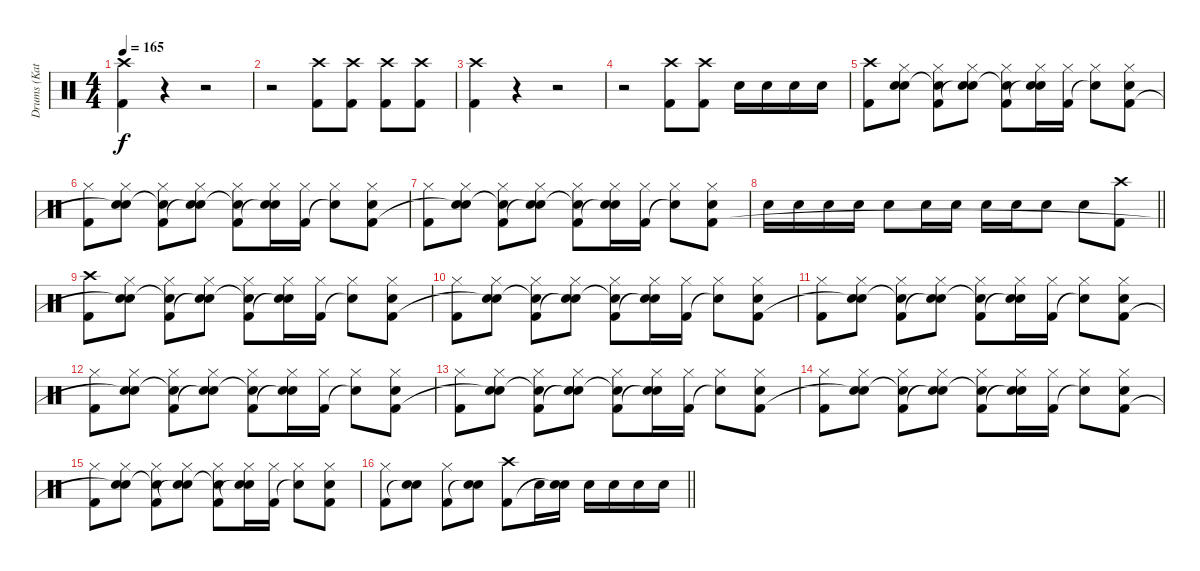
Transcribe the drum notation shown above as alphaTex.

\track ("Drums (Katsuji)" "Drums (Kat") {instrument percussion}
\staff {score}
\articulation defaults
\ts (4 4)
\tempo 165
\clef neutral
\ks c
("Crash high (hit)" "Kick (hit) 2").4{dy f} r.4 r.2 |
r.2 ("Crash high (hit)" "Kick (hit) 2").8 ("Crash high (hit)" "Kick (hit) 2").8 ("Crash high (hit)" "Kick (hit) 2").8 ("Crash high (hit)" "Kick (hit) 2").8 |
("Crash high (hit)" "Kick (hit) 2").4 r.4 r.2 |
r.2 ("Crash high (hit)" "Kick (hit) 2").8 ("Crash high (hit)" "Kick (hit) 2").8 "Snare (hit) 2".16 "Snare (hit) 2".16 "Snare (hit) 2".16 "Snare (hit) 2".16 |
("Crash high (hit)" "Kick (hit) 2").8 ("Hi-Hat (closed)" "Snare (hit) 2" "Snare (hit)").8 ("Hi-Hat (closed)" "Snare (hit)"{t} "Kick (hit) 2").8 ("Hi-Hat (closed)" "Snare (hit) 2" "Snare (hit)"{t}).8 ("Hi-Hat (closed)" "Snare (hit)"{t} "Kick (hit) 2").8 ("Hi-Hat (closed)" "Snare (hit) 2" "Snare (hit)"{t}).16 ("Hi-Hat (closed)" "Kick (hit) 2").16 ("Hi-Hat (closed)" "Snare (hit)"{t}).8 ("Hi-Hat (closed)" "Snare (hit) 2" "Kick (hit) 2").8 |
("Hi-Hat (closed)" "Kick (hit) 2").8 ("Hi-Hat (closed)" "Snare (hit) 2" "Snare (hit)"{t}).8 ("Hi-Hat (closed)" "Snare (hit)"{t} "Kick (hit) 2").8 ("Hi-Hat (closed)" "Snare (hit) 2" "Snare (hit)"{t}).8 ("Hi-Hat (closed)" "Snare (hit)"{t} "Kick (hit) 2").8 ("Hi-Hat (closed)" "Snare (hit) 2" "Snare (hit)"{t}).16 ("Hi-Hat (closed)" "Kick (hit) 2").16 ("Hi-Hat (closed)" "Snare (hit)"{t}).8 ("Hi-Hat (closed)" "Snare (hit) 2" "Kick (hit) 2").8 |
("Hi-Hat (closed)" "Kick (hit) 2").8 ("Hi-Hat (closed)" "Snare (hit) 2" "Snare (hit)"{t}).8 ("Hi-Hat (closed)" "Snare (hit)"{t} "Kick (hit) 2").8 ("Hi-Hat (closed)" "Snare (hit) 2" "Snare (hit)"{t}).8 ("Hi-Hat (closed)" "Snare (hit)"{t} "Kick (hit) 2").8 ("Hi-Hat (closed)" "Snare (hit) 2" "Snare (hit)"{t}).16 ("Hi-Hat (closed)" "Kick (hit) 2").16 ("Hi-Hat (closed)" "Snare (hit)"{t}).8 ("Hi-Hat (closed)" "Snare (hit) 2" "Kick (hit) 2").8 |
\barLineRight lightlight "Snare (hit) 2".16 "Snare (hit) 2".16 "Snare (hit) 2".16 "Snare (hit) 2".16 "Snare (hit) 2".8 "Snare (hit) 2".16 "Snare (hit) 2".16 "Snare (hit) 2".16 "Snare (hit) 2".16 "Snare (hit) 2".8 "Snare (hit) 2".8
("Crash high (hit)" "Kick (hit) 2").8 |
("Crash high (hit)" "Kick (hit) 2").8 ("Hi-Hat (closed)" "Snare (hit) 2" "Snare (hit)"{t}).8 ("Hi-Hat (closed)" "Snare (hit)"{t} "Kick (hit) 2").8 ("Hi-Hat (closed)" "Snare (hit) 2" "Snare (hit)"{t}).8 ("Hi-Hat (closed)" "Snare (hit)"{t} "Kick (hit) 2").8 ("Hi-Hat (closed)" "Snare (hit) 2" "Snare (hit)"{t}).16 ("Hi-Hat (closed)" "Kick (hit) 2").16 ("Hi-Hat (closed)" "Snare (hit)"{t}).8 ("Hi-Hat (closed)" "Snare (hit) 2" "Kick (hit) 2").8 |
("Hi-Hat (closed)" "Kick (hit) 2").8 ("Hi-Hat (closed)" "Snare (hit) 2" "Snare (hit)"{t}).8 ("Hi-Hat (closed)" "Snare (hit)"{t} "Kick (hit) 2").8 ("Hi-Hat (closed)" "Snare (hit) 2" "Snare (hit)"{t}).8 ("Hi-Hat (closed)" "Snare (hit) 2"{t} "Kick (hit) 2").8 ("Hi-Hat (closed)" "Snare (hit) 2" "Snare (hit)"{t}).16 ("Hi-Hat (closed)" "Kick (hit) 2").16 ("Hi-Hat (closed)" "Snare (hit)"{t}).8 ("Hi-Hat (closed)" "Snare (hit) 2" "Kick (hit) 2").8 |
("Hi-Hat (closed)" "Kick (hit) 2").8 ("Hi-Hat (closed)" "Snare (hit) 2" "Snare (hit)"{t}).8 ("Hi-Hat (closed)" "Snare (hit)"{t} "Kick (hit) 2").8 ("Hi-Hat (closed)" "Snare (hit) 2" "Snare (hit)"{t}).8 ("Hi-Hat (closed)" "Snare (hit)"{t} "Kick (hit) 2").8 ("Hi-Hat (closed)" "Snare (hit) 2" "Snare (hit)"{t}).16 ("Hi-Hat (closed)" "Kick (hit) 2").16 ("Hi-Hat (closed)" "Snare (hit)"{t}).8 ("Hi-Hat (closed)" "Snare (hit) 2" "Kick (hit) 2").8 |
("Hi-Hat (closed)" "Kick (hit) 2").8 ("Hi-Hat (closed)" "Snare (hit) 2" "Snare (hit)"{t}).8 ("Hi-Hat (closed)" "Snare (hit)"{t} "Kick (hit) 2").8 ("Hi-Hat (closed)" "Snare (hit) 2" "Snare (hit)"{t}).8 ("Hi-Hat (closed)" "Snare (hit)"{t} "Kick (hit) 2").8 ("Hi-Hat (closed)" "Snare (hit) 2" "Snare (hit)"{t}).16 ("Hi-Hat (closed)" "Kick (hit) 2").16 ("Hi-Hat (closed)" "Snare (hit)"{t}).8 ("Hi-Hat (closed)" "Snare (hit) 2" "Kick (hit) 2").8 |
("Hi-Hat (closed)" "Kick (hit) 2").8 ("Hi-Hat (closed)" "Snare (hit) 2" "Snare (hit)"{t}).8 ("Hi-Hat (closed)" "Snare (hit)"{t} "Kick (hit) 2").8 ("Hi-Hat (closed)" "Snare (hit) 2" "Snare (hit)"{t}).8 ("Hi-Hat (closed)" "Snare (hit)"{t} "Kick (hit) 2").8 ("Hi-Hat (closed)" "Snare (hit) 2" "Snare (hit)"{t}).16 ("Hi-Hat (closed)" "Kick (hit) 2").16 ("Hi-Hat (closed)" "Snare (hit)"{t}).8 ("Hi-Hat (closed)" "Snare (hit) 2" "Kick (hit) 2").8 |
("Hi-Hat (closed)" "Kick (hit) 2").8 ("Hi-Hat (closed)" "Snare (hit) 2" "Snare (hit)"{t}).8 ("Hi-Hat (closed)" "Snare (hit)"{t} "Kick (hit) 2").8 ("Hi-Hat (closed)" "Snare (hit) 2" "Snare (hit)"{t}).8 ("Hi-Hat (closed)" "Snare (hit)"{t} "Kick (hit) 2").8 ("Hi-Hat (closed)" "Snare (hit) 2" "Snare (hit)"{t}).16 ("Hi-Hat (closed)" "Kick (hit) 2").16 ("Hi-Hat (closed)" "Snare (hit)"{t}).8 ("Hi-Hat (closed)" "Snare (hit) 2" "Kick (hit) 2").8 |
("Hi-Hat (closed)" "Kick (hit) 2").8 ("Hi-Hat (closed)" "Snare (hit) 2" "Snare (hit)"{t}).8 ("Hi-Hat (closed)" "Snare (hit)"{t} "Kick (hit) 2").8 ("Hi-Hat (closed)" "Snare (hit) 2" "Snare (hit)"{t}).8 ("Hi-Hat (closed)" "Snare (hit)"{t} "Kick (hit) 2").8 ("Hi-Hat (closed)" "Snare (hit) 2" "Snare (hit)"{t}).16 ("Hi-Hat (closed)" "Kick (hit) 2").16 ("Hi-Hat (closed)" "Snare (hit)"{t}).8 ("Hi-Hat (closed)" "Snare (hit) 2" "Kick (hit) 2").8 |
\barLineRight lightlight
("Hi-Hat (closed)" "Kick (hit) 2").8 ("Snare (hit) 2" "Snare (hit)"{t}).8 ("Hi-Hat (closed)" "Kick (hit) 2").8 ("Snare (hit) 2" "Snare (hit)"{t}).8 ("Crash high (hit)" "Kick (hit) 2").8 "Snare (hit) 2".16 ("Snare (hit) 2" "Snare (hit)"{t}).16 "Snare (hit) 2".16 "Snare (hit) 2".16 "Snare (hit) 2".16 "Snare (hit) 2".16
